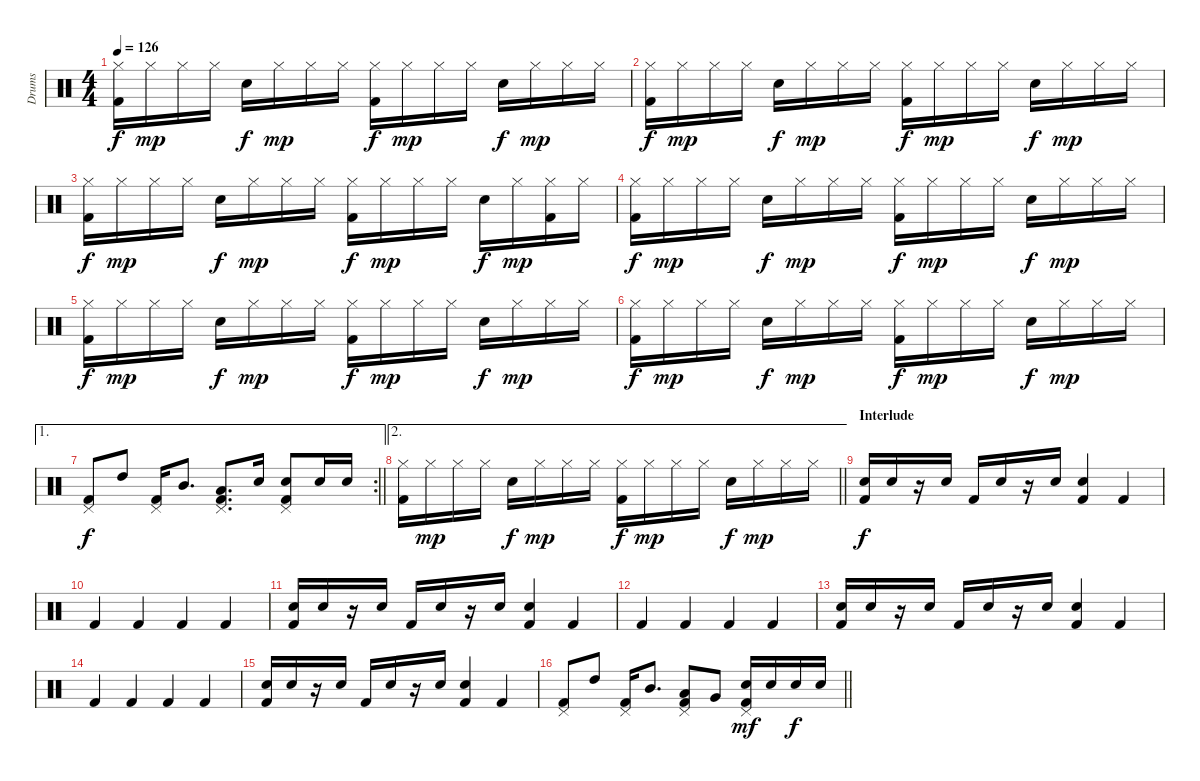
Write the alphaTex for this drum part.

\track ("Drums" "Drums") {instrument percussion}
\staff {score}
\articulation defaults
\ts (4 4)
\tempo 126
\clef neutral
\ks c
("Hi-Hat (closed)" "Kick (hit) 2").16{dy f} "Hi-Hat (closed)".16{dy mp} "Hi-Hat (closed)".16 "Hi-Hat (closed)".16 "Snare (hit) 2".16{dy f} "Hi-Hat (closed)".16{dy mp} "Hi-Hat (closed)".16 "Hi-Hat (closed)".16 ("Hi-Hat (closed)" "Kick (hit) 2").16{dy f} "Hi-Hat (closed)".16{dy mp} "Hi-Hat (closed)".16 "Hi-Hat (closed)".16 "Snare (hit) 2".16{dy f} "Hi-Hat (closed)".16{dy mp} "Hi-Hat (closed)".16 "Hi-Hat (closed)".16 |
("Hi-Hat (closed)" "Kick (hit) 2").16{dy f} "Hi-Hat (closed)".16{dy mp} "Hi-Hat (closed)".16 "Hi-Hat (closed)".16 "Snare (hit) 2".16{dy f} "Hi-Hat (closed)".16{dy mp} "Hi-Hat (closed)".16 "Hi-Hat (closed)".16 ("Hi-Hat (closed)" "Kick (hit) 2").16{dy f} "Hi-Hat (closed)".16{dy mp} "Hi-Hat (closed)".16 "Hi-Hat (closed)".16 "Snare (hit) 2".16{dy f} "Hi-Hat (closed)".16{dy mp} "Hi-Hat (closed)".16 "Hi-Hat (closed)".16 |
("Hi-Hat (closed)" "Kick (hit) 2").16{dy f} "Hi-Hat (closed)".16{dy mp} "Hi-Hat (closed)".16 "Hi-Hat (closed)".16 "Snare (hit) 2".16{dy f} "Hi-Hat (closed)".16{dy mp} "Hi-Hat (closed)".16 "Hi-Hat (closed)".16 ("Hi-Hat (closed)" "Kick (hit) 2").16{dy f} "Hi-Hat (closed)".16{dy mp} "Hi-Hat (closed)".16 "Hi-Hat (closed)".16 "Snare (hit) 2".16{dy f} "Hi-Hat (closed)".16{dy mp} ("Hi-Hat (closed)" "Kick (hit) 2").16 "Hi-Hat (closed)".16 |
("Hi-Hat (closed)" "Kick (hit) 2").16{dy f} "Hi-Hat (closed)".16{dy mp} "Hi-Hat (closed)".16 "Hi-Hat (closed)".16 "Snare (hit) 2".16{dy f} "Hi-Hat (closed)".16{dy mp} "Hi-Hat (closed)".16 "Hi-Hat (closed)".16 ("Hi-Hat (closed)" "Kick (hit) 2").16{dy f} "Hi-Hat (closed)".16{dy mp} "Hi-Hat (closed)".16 "Hi-Hat (closed)".16 "Snare (hit) 2".16{dy f} "Hi-Hat (closed)".16{dy mp} "Hi-Hat (closed)".16 "Hi-Hat (closed)".16 |
("Hi-Hat (closed)" "Kick (hit) 2").16{dy f} "Hi-Hat (closed)".16{dy mp} "Hi-Hat (closed)".16 "Hi-Hat (closed)".16 "Snare (hit) 2".16{dy f} "Hi-Hat (closed)".16{dy mp} "Hi-Hat (closed)".16 "Hi-Hat (closed)".16 ("Hi-Hat (closed)" "Kick (hit) 2").16{dy f} "Hi-Hat (closed)".16{dy mp} "Hi-Hat (closed)".16 "Hi-Hat (closed)".16 "Snare (hit) 2".16{dy f} "Hi-Hat (closed)".16{dy mp} "Hi-Hat (closed)".16 "Hi-Hat (closed)".16 |
("Hi-Hat (closed)" "Kick (hit) 2").16{dy f} "Hi-Hat (closed)".16{dy mp} "Hi-Hat (closed)".16 "Hi-Hat (closed)".16 "Snare (hit) 2".16{dy f} "Hi-Hat (closed)".16{dy mp} "Hi-Hat (closed)".16 "Hi-Hat (closed)".16 ("Hi-Hat (closed)" "Kick (hit) 2").16{dy f} "Hi-Hat (closed)".16{dy mp} "Hi-Hat (closed)".16 "Hi-Hat (closed)".16 "Snare (hit) 2".16{dy f} "Hi-Hat (closed)".16{dy mp} "Hi-Hat (closed)".16 "Hi-Hat (closed)".16 |
\ae 1
\rc 2
\barLineRight lightlight
("Pedal Hi-Hat (hit)" "Kick (hit) 2").8{dy f} "High Tom (hit)".8 ("Pedal Hi-Hat (hit)" "Kick (hit) 2").16 "Mid Tom (hit)".8{d} ("Pedal Hi-Hat (hit)" "Low Tom (hit)" "Kick (hit) 2").8{d} "Snare (hit) 2".16 ("Pedal Hi-Hat (hit)" "Snare (hit) 2" "Kick (hit) 2").8 "Snare (hit) 2".16 "Snare (hit) 2".16 |
\ae 2
\barLineRight lightlight
("Hi-Hat (closed)" "Kick (hit) 2").16 "Hi-Hat (closed)".16{dy mp} "Hi-Hat (closed)".16 "Hi-Hat (closed)".16 "Snare (hit) 2".16{dy f} "Hi-Hat (closed)".16{dy mp} "Hi-Hat (closed)".16 "Hi-Hat (closed)".16 ("Hi-Hat (closed)" "Kick (hit) 2").16{dy f} "Hi-Hat (closed)".16{dy mp} "Hi-Hat (closed)".16 "Hi-Hat (closed)".16 "Snare (hit) 2".16{dy f} "Hi-Hat (closed)".16{dy mp} "Hi-Hat (closed)".16 "Hi-Hat (closed)".16 |
\section ("" "Interlude")
("Snare (hit) 2" "Kick (hit) 2").16{dy f} "Snare (hit) 2".16 r.16 "Snare (hit) 2".16 "Kick (hit) 2".16 "Snare (hit) 2".16 r.16 "Snare (hit) 2".16 ("Snare (hit) 2" "Kick (hit) 2").4 "Kick (hit) 2".4 |
"Kick (hit) 2".4 "Kick (hit) 2".4 "Kick (hit) 2".4 "Kick (hit) 2".4 |
("Snare (hit) 2" "Kick (hit) 2").16 "Snare (hit) 2".16 r.16 "Snare (hit) 2".16 "Kick (hit) 2".16 "Snare (hit) 2".16 r.16 "Snare (hit) 2".16 ("Snare (hit) 2" "Kick (hit) 2").4 "Kick (hit) 2".4 |
"Kick (hit) 2".4 "Kick (hit) 2".4 "Kick (hit) 2".4 "Kick (hit) 2".4 |
("Snare (hit) 2" "Kick (hit) 2").16 "Snare (hit) 2".16 r.16 "Snare (hit) 2".16 "Kick (hit) 2".16 "Snare (hit) 2".16 r.16 "Snare (hit) 2".16 ("Snare (hit) 2" "Kick (hit) 2").4 "Kick (hit) 2".4 |
"Kick (hit) 2".4 "Kick (hit) 2".4 "Kick (hit) 2".4 "Kick (hit) 2".4 |
("Snare (hit) 2" "Kick (hit) 2").16 "Snare (hit) 2".16 r.16 "Snare (hit) 2".16 "Kick (hit) 2".16 "Snare (hit) 2".16 r.16 "Snare (hit) 2".16 ("Snare (hit) 2" "Kick (hit) 2").4 "Kick (hit) 2".4 |
\barLineRight lightlight
("Pedal Hi-Hat (hit)" "Kick (hit) 2").8 "High Tom (hit)".8 ("Pedal Hi-Hat (hit)" "Kick (hit) 2").16 "Mid Tom (hit)".8{d} ("Pedal Hi-Hat (hit)" "Low Tom (hit)" "Kick (hit) 2").8 "Very Low Tom (hit)".8 ("Pedal Hi-Hat (hit)" "Snare (hit) 2" "Kick (hit) 2").16{dy mf} "Snare (hit) 2".16 "Snare (hit) 2".16{dy f} "Snare (hit) 2".16
